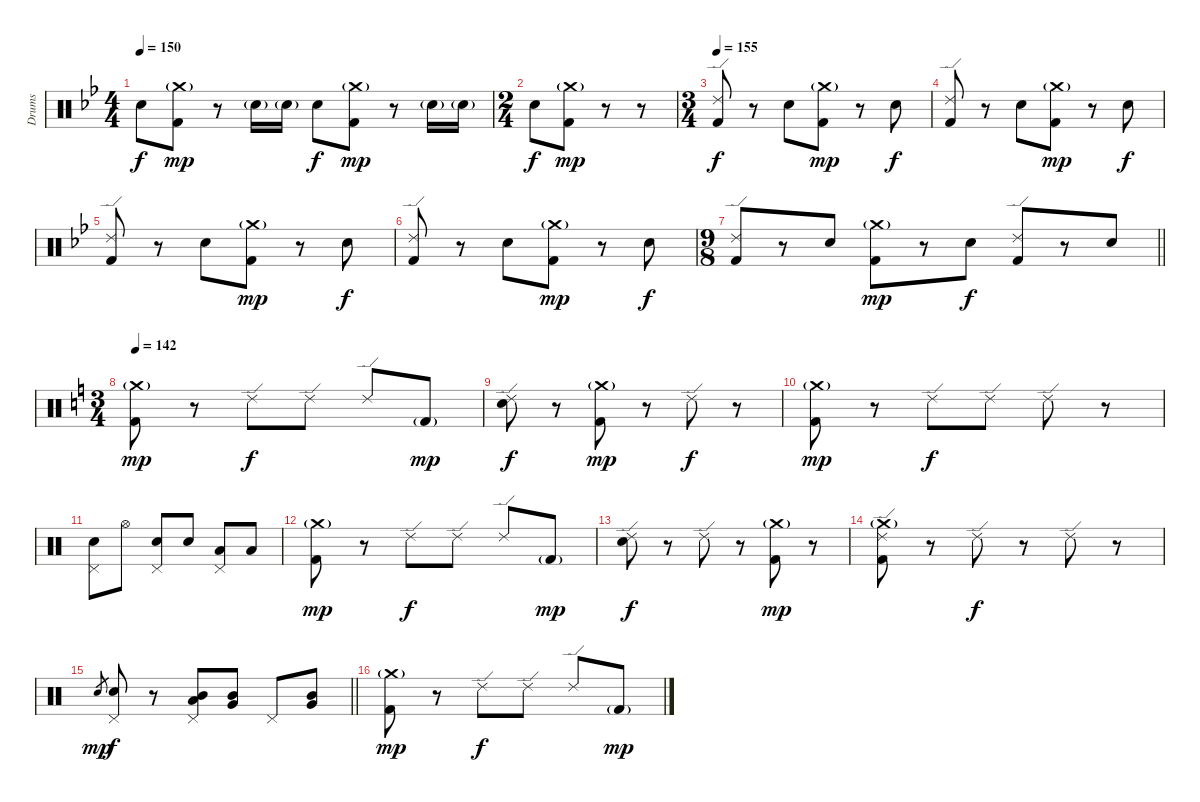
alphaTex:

\track ("Drums" "Drums") {instrument percussion}
\staff {score}
\articulation defaults
\ts (4 4)
\tempo 150
\clef neutral
\ks bb "Electric Snare (hit)".8{dy f}
("Crash medium (hit)"{g} "Kick (hit) 2").8{dy mp} r.8 "Electric Snare (hit)"{g}.16 "Electric Snare (hit)"{g}.16 "Electric Snare (hit)".8{dy f} ("Crash medium (hit)"{g} "Kick (hit) 2").8{dy mp} r.8 "Electric Snare (hit)"{g}.16 "Electric Snare (hit)"{g}.16 |
\ts (2 4)
"Electric Snare (hit)".8{dy f} ("Crash medium (hit)"{g} "Kick (hit) 2").8{dy mp} r.8 r.8 |
\ts (3 4)
\tempo 155
("Ride (edge) 2" "Kick (hit) 2").8{dy f} r.8 "Electric Snare (hit)".8 ("Crash medium (hit)"{g} "Kick (hit) 2").8{dy mp} r.8 "Electric Snare (hit)".8{dy f} |
("Ride (edge) 2" "Kick (hit) 2").8 r.8 "Electric Snare (hit)".8 ("Crash medium (hit)"{g} "Kick (hit) 2").8{dy mp} r.8 "Electric Snare (hit)".8{dy f} |
("Ride (edge) 2" "Kick (hit) 2").8 r.8 "Electric Snare (hit)".8 ("Crash medium (hit)"{g} "Kick (hit) 2").8{dy mp} r.8 "Electric Snare (hit)".8{dy f} |
("Ride (edge) 2" "Kick (hit) 2").8 r.8 "Electric Snare (hit)".8 ("Crash medium (hit)"{g} "Kick (hit) 2").8{dy mp} r.8 "Electric Snare (hit)".8{dy f} |
\ts (9 8)
\barLineRight lightlight
("Ride (edge) 2" "Kick (hit) 2").8 r.8 "Electric Snare (hit)".8 ("Crash medium (hit)"{g} "Kick (hit) 2").8{dy mp} r.8 "Electric Snare (hit)".8{dy f} ("Ride (edge) 2" "Kick (hit) 2").8 r.8 "Electric Snare (hit)".8 |
\ts (3 4)
\tempo 142
\ks c
("Crash medium (hit)"{g} "Kick (hit) 2").8{dy mp} r.8 "Ride (edge) 2".8{dy f} "Ride (edge) 2".8 "Ride (edge) 2".8 "Kick (hit) 2"{g}.8{dy mp} |
("Ride (edge) 2" "Electric Snare (hit)").8{dy f} r.8 ("Crash medium (hit)"{g} "Kick (hit) 2").8{dy mp} r.8 "Ride (edge) 2".8{dy f} r.8 |
("Crash medium (hit)"{g} "Kick (hit) 2").8{dy mp} r.8 "Ride (edge) 2".8{dy f} "Ride (edge) 2".8 "Ride (edge) 2".8 r.8 |
("Pedal Hi-Hat (hit)" "Electric Snare (hit)").8 "Hi-Hat (open)".8 ("Pedal Hi-Hat (hit)" "Electric Snare (hit)").8 "Electric Snare (hit)".8 ("Pedal Hi-Hat (hit)" "Low Tom (hit)").8 "Low Tom (hit)".8 |
("Crash medium (hit)"{g} "Kick (hit) 2").8{dy mp} r.8 "Ride (edge) 2".8{dy f} "Ride (edge) 2".8 "Ride (edge) 2".8 "Kick (hit) 2"{g}.8{dy mp} |
("Ride (edge) 2" "Electric Snare (hit)").8{dy f} r.8 "Ride (edge) 2".8 r.8 ("Crash medium (hit)"{g} "Kick (hit) 2").8{dy mp} r.8 |
("Crash medium (hit)"{g} "Ride (edge) 2" "Kick (hit) 2").8 r.8 "Ride (edge) 2".8{dy f} r.8 "Ride (edge) 2".8 r.8 |
\barLineRight lightlight "Electric Snare (hit)".8{gr dy mp}
("Pedal Hi-Hat (hit)" "Electric Snare (hit)").8{dy f} r.8 ("Pedal Hi-Hat (hit)" "Mid Tom (hit)" "Low Tom (hit)").8 ("Mid Tom (hit)" "Very Low Tom (hit)").8 "Pedal Hi-Hat (hit)".8 ("Mid Tom (hit)" "Very Low Tom (hit)").8 |
("Crash medium (hit)"{g} "Kick (hit) 2").8{dy mp} r.8 "Ride (edge) 2".8{dy f} "Ride (edge) 2".8 "Ride (edge) 2".8 "Kick (hit) 2"{g}.8{dy mp}
